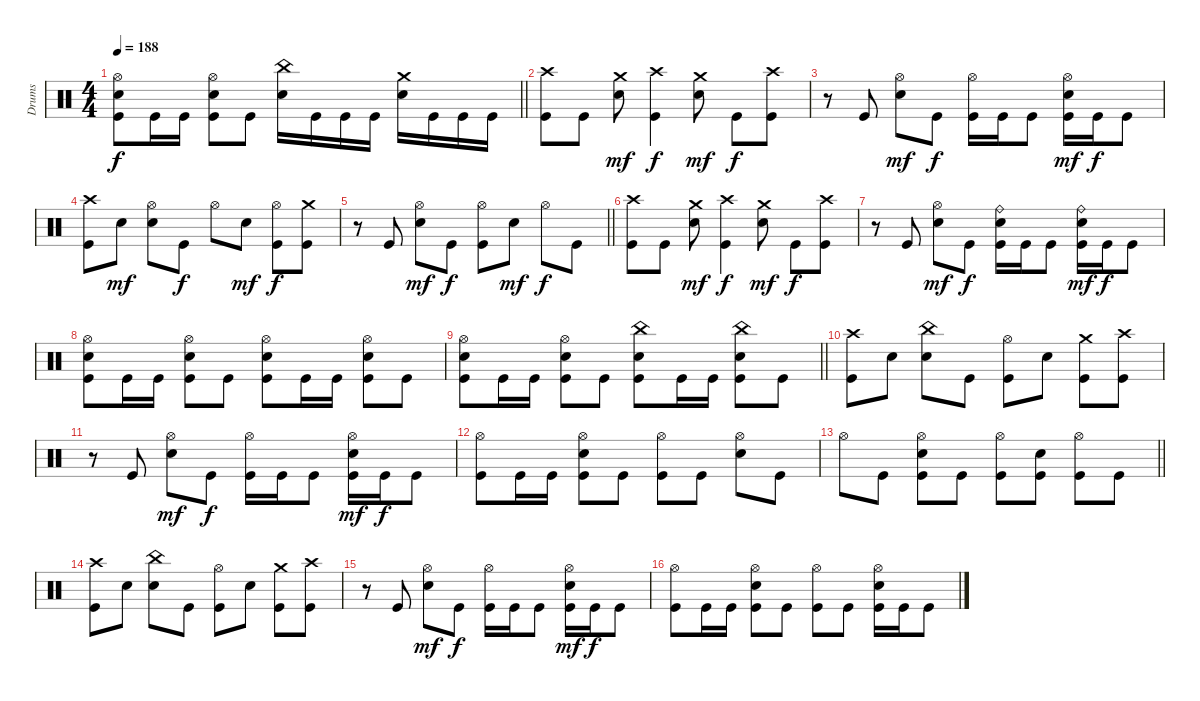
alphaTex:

\track ("Drums" "Drums") {instrument percussion}
\staff
\articulation defaults
\ts (4 4)
\tempo 188
\clef neutral
\barLineRight lightlight
\ks c
("Hi-Hat (open)" "Electric Snare (hit)" "Kick (hit)").8{dy f} "Kick (hit)".16 "Kick (hit)".16 ("Hi-Hat (open)" "Electric Snare (hit)" "Kick (hit)").8 "Kick (hit)".8 ("China (hit)" "Electric Snare (hit)").16 "Kick (hit)".16 "Kick (hit)".16 "Kick (hit)".16 ("Crash medium (hit)" "Electric Snare (hit)").16 "Kick (hit)".16 "Kick (hit)".16 "Kick (hit)".16 |
("Crash high (hit)" "Kick (hit)").8 "Kick (hit)".8 ("Crash medium (hit)" "Electric Snare (hit)").8{dy mf} ("Crash high (hit)" "Kick (hit)").4{dy f} ("Crash medium (hit)" "Electric Snare (hit)").8{dy mf} "Kick (hit)".8{dy f} ("Crash high (hit)" "Kick (hit)").8 |
r.8 "Kick (hit)".8 ("Hi-Hat (open)" "Electric Snare (hit)").8{dy mf} "Kick (hit)".8{dy f} ("Hi-Hat (open)" "Kick (hit)").16 "Kick (hit)".16 "Kick (hit)".8 ("Hi-Hat (open)" "Electric Snare (hit)" "Kick (hit)").16{dy mf} "Kick (hit)".16{dy f} "Kick (hit)".8 |
("Crash high (hit)" "Kick (hit)").8 "Electric Snare (hit)".8{dy mf} ("Hi-Hat (open)" "Electric Snare (hit)").8 "Kick (hit)".8{dy f} "Hi-Hat (open)".8 "Electric Snare (hit)".8{dy mf} ("Hi-Hat (open)" "Kick (hit)").8{dy f} ("Crash medium (hit)" "Kick (hit)").8 |
\barLineRight lightlight
r.8 "Kick (hit)".8 ("Hi-Hat (open)" "Electric Snare (hit)").8{dy mf} "Kick (hit)".8{dy f} ("Hi-Hat (open)" "Kick (hit)").8 "Electric Snare (hit)".8{dy mf} "Hi-Hat (open)".8{dy f} "Kick (hit)".8 |
("Crash high (hit)" "Kick (hit)").8 "Kick (hit)".8 ("Crash medium (hit)" "Electric Snare (hit)").8{dy mf} ("Crash high (hit)" "Kick (hit)").4{dy f} ("Crash medium (hit)" "Electric Snare (hit)").8{dy mf} "Kick (hit)".8{dy f} ("Crash high (hit)" "Kick (hit)").8 |
r.8 "Kick (hit)".8 ("Hi-Hat (open)" "Electric Snare (hit)").8{dy mf} "Kick (hit)".8{dy f} ("Ride (bell)" "Electric Snare (hit)" "Kick (hit)").16 "Kick (hit)".16 "Kick (hit)".8 ("Ride (bell)" "Electric Snare (hit)" "Kick (hit)").16{dy mf} "Kick (hit)".16{dy f} "Kick (hit)".8 |
("Hi-Hat (open)" "Electric Snare (hit)" "Kick (hit)").8 "Kick (hit)".16 "Kick (hit)".16 ("Hi-Hat (open)" "Electric Snare (hit)" "Kick (hit)").8 "Kick (hit)".8 ("Hi-Hat (open)" "Electric Snare (hit)" "Kick (hit)").8 "Kick (hit)".16 "Kick (hit)".16 ("Hi-Hat (open)" "Electric Snare (hit)" "Kick (hit)").8 "Kick (hit)".8 |
\barLineRight lightlight
("Hi-Hat (open)" "Electric Snare (hit)" "Kick (hit)").8 "Kick (hit)".16 "Kick (hit)".16 ("Hi-Hat (open)" "Electric Snare (hit)" "Kick (hit)").8 "Kick (hit)".8 ("China (hit)" "Electric Snare (hit)" "Kick (hit)").8 "Kick (hit)".16 "Kick (hit)".16 ("China (hit)" "Electric Snare (hit)" "Kick (hit)").8 "Kick (hit)".8 |
\section ("" "")
("Crash high (hit)" "Kick (hit)").8 "Electric Snare (hit)".8 ("China (hit)" "Electric Snare (hit)").8 "Kick (hit)".8 ("Hi-Hat (open)" "Kick (hit)").8 "Electric Snare (hit)".8 ("Crash medium (hit)" "Kick (hit)").8 ("Crash high (hit)" "Kick (hit)").8 |
r.8 "Kick (hit)".8 ("Hi-Hat (open)" "Electric Snare (hit)").8{dy mf} "Kick (hit)".8{dy f} ("Hi-Hat (open)" "Kick (hit)").16 "Kick (hit)".16 "Kick (hit)".8 ("Hi-Hat (open)" "Electric Snare (hit)" "Kick (hit)").16{dy mf} "Kick (hit)".16{dy f} "Kick (hit)".8 |
("Hi-Hat (open)" "Kick (hit)").8 "Kick (hit)".16 "Kick (hit)".16 ("Hi-Hat (open)" "Electric Snare (hit)" "Kick (hit)").8 "Kick (hit)".8 ("Hi-Hat (open)" "Kick (hit)").8 "Kick (hit)".8 ("Hi-Hat (open)" "Electric Snare (hit)").8 "Kick (hit)".8 |
\barLineRight lightlight "Hi-Hat (open)".8 "Kick (hit)".8
("Hi-Hat (open)" "Electric Snare (hit)" "Kick (hit)").8 "Kick (hit)".8 ("Hi-Hat (open)" "Kick (hit)").8 ("Electric Snare (hit)" "Kick (hit)").8 ("Hi-Hat (open)" "Kick (hit)").8 "Kick (hit)".8 |
("Crash high (hit)" "Kick (hit)").8 "Electric Snare (hit)".8 ("China (hit)" "Electric Snare (hit)").8 "Kick (hit)".8 ("Hi-Hat (open)" "Kick (hit)").8 "Electric Snare (hit)".8 ("Crash medium (hit)" "Kick (hit)").8 ("Crash high (hit)" "Kick (hit)").8 |
r.8 "Kick (hit)".8 ("Hi-Hat (open)" "Electric Snare (hit)").8{dy mf} "Kick (hit)".8{dy f} ("Hi-Hat (open)" "Kick (hit)").16 "Kick (hit)".16 "Kick (hit)".8 ("Hi-Hat (open)" "Electric Snare (hit)" "Kick (hit)").16{dy mf} "Kick (hit)".16{dy f} "Kick (hit)".8 |
("Hi-Hat (open)" "Kick (hit)").8 "Kick (hit)".16 "Kick (hit)".16 ("Hi-Hat (open)" "Electric Snare (hit)" "Kick (hit)").8 "Kick (hit)".8 ("Hi-Hat (open)" "Kick (hit)").8 "Kick (hit)".8 ("Hi-Hat (open)" "Electric Snare (hit)" "Kick (hit)").16 "Kick (hit)".16 "Kick (hit)".8
